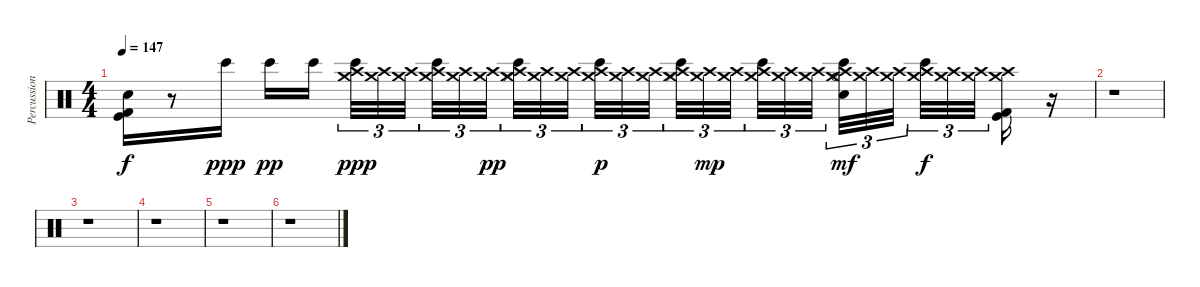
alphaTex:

\track ("Percussion (Room Kit)" "Percussion") {instrument percussion}
\staff {score}
\articulation defaults
\ts (4 4)
\tempo 147
\clef neutral
\ks c
("Kick (hit) 2" "Kick (hit)" "Hand Clap (hit)").16{dy f} r.8 "Bongo High (hit)".16{dy ppp} "Bongo High (hit)".16{dy pp} "Bongo High (hit)".16{beam splitsecondary} ("Bongo High (hit)" "Crash medium (hit)" "Crash high (hit)").32{tu (3 2) dy ppp} ("Crash medium (hit)" "Crash high (hit)").32{tu (3 2)} ("Crash medium (hit)" "Crash high (hit)").32{tu (3 2) beam splitsecondary} ("Bongo High (hit)" "Crash medium (hit)" "Crash high (hit)").32{tu (3 2)} ("Crash medium (hit)" "Crash high (hit)").32{tu (3 2)} ("Crash medium (hit)" "Crash high (hit)").32{tu (3 2) dy pp} ("Hi-Hat (closed)" "Bongo High (hit)" "Crash medium (hit)" "Crash high (hit)").32{tu (3 2)} ("Crash medium (hit)" "Crash high (hit)").32{tu (3 2)} ("Crash medium (hit)" "Crash high (hit)").32{tu (3 2) beam splitsecondary} ("Bongo High (hit)" "Crash medium (hit)" "Crash high (hit)").32{tu (3 2) dy p} ("Crash medium (hit)" "Crash high (hit)").32{tu (3 2)} ("Crash medium (hit)" "Crash high (hit)").32{tu (3 2) beam splitsecondary} ("Hi-Hat (closed)" "Bongo High (hit)" "Crash medium (hit)" "Crash high (hit)").32{tu (3 2)} ("Crash medium (hit)" "Crash high (hit)").32{tu (3 2) dy mp} ("Crash medium (hit)" "Crash high (hit)").32{tu (3 2) beam splitsecondary} ("Bongo High (hit)" "Crash medium (hit)" "Crash high (hit)").32{tu (3 2)} ("Crash medium (hit)" "Crash high (hit)").32{tu (3 2)} ("Crash medium (hit)" "Crash high (hit)").32{tu (3 2)} ("Hi-Hat (open)" "Hand Clap (hit)" "Bongo High (hit)" "Crash medium (hit)" "Crash high (hit)").32{tu (3 2) dy mf} ("Crash medium (hit)" "Crash high (hit)").32{tu (3 2)} ("Crash medium (hit)" "Crash high (hit)").32{tu (3 2) beam splitsecondary} ("Bongo High (hit)" "Crash medium (hit)" "Crash high (hit)").32{tu (3 2) dy f} ("Crash medium (hit)" "Crash high (hit)").32{tu (3 2)} ("Crash medium (hit)" "Crash high (hit)").32{tu (3 2) beam splitsecondary} ("Kick (hit) 2" "Kick (hit)" "Crash medium (hit)" "Crash high (hit)").16 r.16 |
r.1 |
r.1 |
r.1 |
r.1 |
r.1
